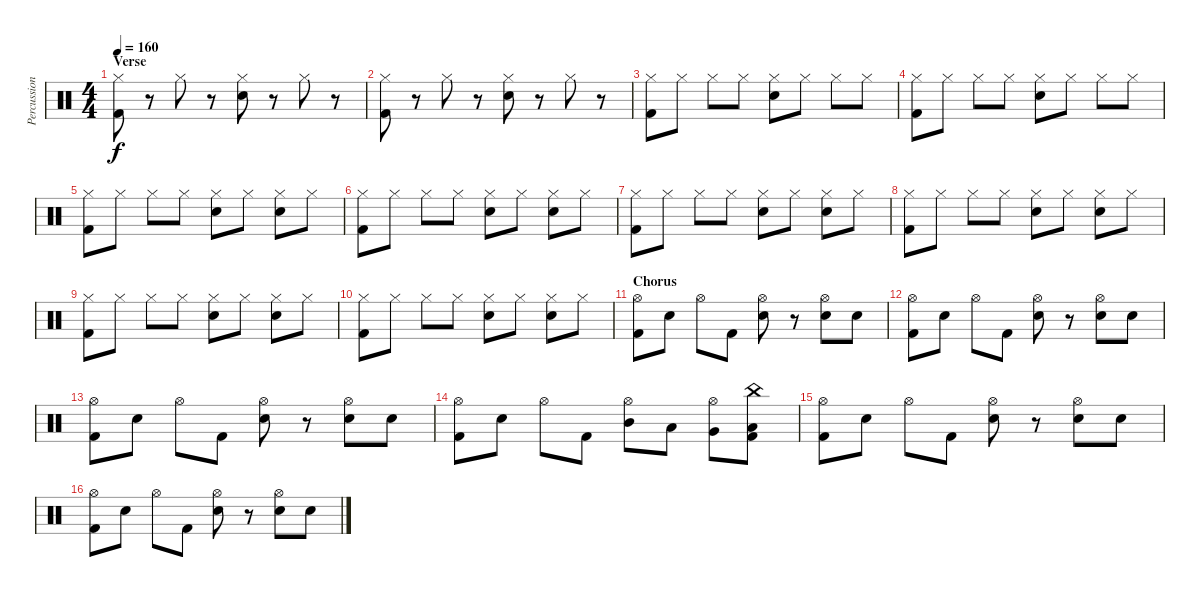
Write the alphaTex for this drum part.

\track ("Percussion" "Percussion") {instrument percussion}
\staff {score}
\articulation defaults
\ts (4 4)
\section ("" "Verse")
\tempo 160
\clef neutral
\ks c
("Hi-Hat (closed)" "Kick (hit) 2").8{dy f} r.8 "Hi-Hat (closed)".8 r.8 ("Hi-Hat (closed)" "Snare (hit) 2").8 r.8 "Hi-Hat (closed)".8 r.8 |
("Hi-Hat (closed)" "Kick (hit) 2").8 r.8 "Hi-Hat (closed)".8 r.8 ("Hi-Hat (closed)" "Snare (hit) 2").8 r.8 "Hi-Hat (closed)".8 r.8 |
("Hi-Hat (closed)" "Kick (hit) 2").8 "Hi-Hat (closed)".8 "Hi-Hat (closed)".8 "Hi-Hat (closed)".8 ("Hi-Hat (closed)" "Snare (hit) 2").8 "Hi-Hat (closed)".8 "Hi-Hat (closed)".8 "Hi-Hat (closed)".8 |
("Hi-Hat (closed)" "Kick (hit) 2").8 "Hi-Hat (closed)".8 "Hi-Hat (closed)".8 "Hi-Hat (closed)".8 ("Hi-Hat (closed)" "Snare (hit) 2").8 "Hi-Hat (closed)".8 "Hi-Hat (closed)".8 "Hi-Hat (closed)".8 |
("Hi-Hat (closed)" "Kick (hit) 2").8 "Hi-Hat (closed)".8 "Hi-Hat (closed)".8 "Hi-Hat (closed)".8 ("Hi-Hat (closed)" "Snare (hit) 2").8 "Hi-Hat (closed)".8 ("Hi-Hat (closed)" "Snare (hit) 2").8 "Hi-Hat (closed)".8 |
("Hi-Hat (closed)" "Kick (hit) 2").8 "Hi-Hat (closed)".8 "Hi-Hat (closed)".8 "Hi-Hat (closed)".8 ("Hi-Hat (closed)" "Snare (hit) 2").8 "Hi-Hat (closed)".8 ("Hi-Hat (closed)" "Snare (hit) 2").8 "Hi-Hat (closed)".8 |
("Hi-Hat (closed)" "Kick (hit) 2").8 "Hi-Hat (closed)".8 "Hi-Hat (closed)".8 "Hi-Hat (closed)".8 ("Hi-Hat (closed)" "Snare (hit) 2").8 "Hi-Hat (closed)".8 ("Hi-Hat (closed)" "Snare (hit) 2").8 "Hi-Hat (closed)".8 |
("Hi-Hat (closed)" "Kick (hit) 2").8 "Hi-Hat (closed)".8 "Hi-Hat (closed)".8 "Hi-Hat (closed)".8 ("Hi-Hat (closed)" "Snare (hit) 2").8 "Hi-Hat (closed)".8 ("Hi-Hat (closed)" "Snare (hit) 2").8 "Hi-Hat (closed)".8 |
("Hi-Hat (closed)" "Kick (hit) 2").8 "Hi-Hat (closed)".8 "Hi-Hat (closed)".8 "Hi-Hat (closed)".8 ("Hi-Hat (closed)" "Snare (hit) 2").8 "Hi-Hat (closed)".8 ("Hi-Hat (closed)" "Snare (hit) 2").8 "Hi-Hat (closed)".8 |
("Hi-Hat (closed)" "Kick (hit) 2").8 "Hi-Hat (closed)".8 "Hi-Hat (closed)".8 "Hi-Hat (closed)".8 ("Hi-Hat (closed)" "Snare (hit) 2").8 "Hi-Hat (closed)".8 ("Hi-Hat (closed)" "Snare (hit) 2").8 "Hi-Hat (closed)".8 |
\section ("" "Chorus")
("Hi-Hat (open)" "Kick (hit) 2").8 "Snare (hit) 2".8 "Hi-Hat (open)".8 "Kick (hit) 2".8 ("Hi-Hat (open)" "Snare (hit) 2").8 r.8 ("Hi-Hat (open)" "Snare (hit) 2").8 "Snare (hit) 2".8 |
("Hi-Hat (open)" "Kick (hit) 2").8 "Snare (hit) 2".8 "Hi-Hat (open)".8 "Kick (hit) 2".8 ("Hi-Hat (open)" "Snare (hit) 2").8 r.8 ("Hi-Hat (open)" "Snare (hit) 2").8 "Snare (hit) 2".8 |
("Hi-Hat (open)" "Kick (hit) 2").8 "Snare (hit) 2".8 "Hi-Hat (open)".8 "Kick (hit) 2".8 ("Hi-Hat (open)" "Snare (hit) 2").8 r.8 ("Hi-Hat (open)" "Snare (hit) 2").8 "Snare (hit) 2".8 |
("Hi-Hat (open)" "Kick (hit) 2").8 "Snare (hit) 2".8 "Hi-Hat (open)".8 "Kick (hit) 2".8 ("Hi-Hat (open)" "Mid Tom (hit)").8 "Low Tom (hit)".8 ("Hi-Hat (open)" "Very Low Tom (hit)").8 ("China (hit)" "Low Floor Tom (hit)" "Kick (hit) 2").8 |
("Hi-Hat (open)" "Kick (hit) 2").8 "Snare (hit) 2".8 "Hi-Hat (open)".8 "Kick (hit) 2".8 ("Hi-Hat (open)" "Snare (hit) 2").8 r.8 ("Hi-Hat (open)" "Snare (hit) 2").8 "Snare (hit) 2".8 |
("Hi-Hat (open)" "Kick (hit) 2").8 "Snare (hit) 2".8 "Hi-Hat (open)".8 "Kick (hit) 2".8 ("Hi-Hat (open)" "Snare (hit) 2").8 r.8 ("Hi-Hat (open)" "Snare (hit) 2").8 "Snare (hit) 2".8
